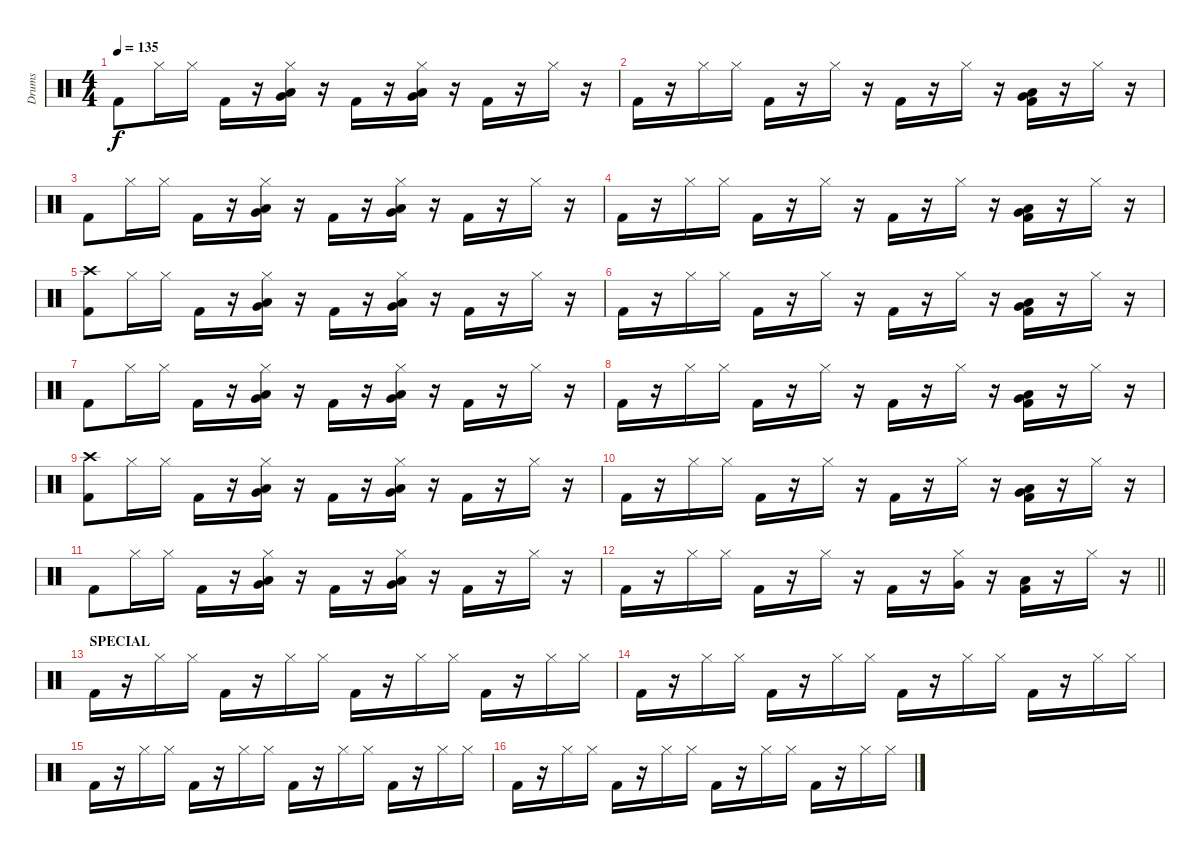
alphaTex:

\track ("Drums" "Drums") {instrument percussion}
\staff {score}
\articulation defaults
\ts (4 4)
\tempo 135
\clef neutral
\ks c "Kick (hit) 2".8{dy f} "Hi-Hat (closed)".16 "Hi-Hat (closed)".16 "Kick (hit) 2".16
r.16 ("Hi-Hat (closed)" "Very Low Tom (hit)" "Low Floor Tom (hit)").16 r.16 "Kick (hit) 2".16 r.16 ("Hi-Hat (closed)" "Low Floor Tom (hit)" "Very Low Tom (hit)").16 r.16 "Kick (hit) 2".16 r.16 "Hi-Hat (closed)".16 r.16 |
"Kick (hit) 2".16 r.16 "Hi-Hat (closed)".16 "Hi-Hat (closed)".16 "Kick (hit) 2".16 r.16 "Hi-Hat (closed)".16 r.16 "Kick (hit) 2".16 r.16 "Hi-Hat (closed)".16 r.16 ("Kick (hit) 2" "Low Floor Tom (hit)" "Very Low Tom (hit)").16 r.16 "Hi-Hat (closed)".16 r.16 |
"Kick (hit) 2".8 "Hi-Hat (closed)".16 "Hi-Hat (closed)".16 "Kick (hit) 2".16 r.16 ("Hi-Hat (closed)" "Very Low Tom (hit)" "Low Floor Tom (hit)").16 r.16 "Kick (hit) 2".16 r.16 ("Hi-Hat (closed)" "Low Floor Tom (hit)" "Very Low Tom (hit)").16 r.16 "Kick (hit) 2".16 r.16 "Hi-Hat (closed)".16 r.16 |
"Kick (hit) 2".16 r.16 "Hi-Hat (closed)".16 "Hi-Hat (closed)".16 "Kick (hit) 2".16 r.16 "Hi-Hat (closed)".16 r.16 "Kick (hit) 2".16 r.16 "Hi-Hat (closed)".16 r.16 ("Kick (hit) 2" "Low Floor Tom (hit)" "Very Low Tom (hit)").16 r.16 "Hi-Hat (closed)".16 r.16 |
("Kick (hit) 2" "Crash high (hit)").8 "Hi-Hat (closed)".16 "Hi-Hat (closed)".16 "Kick (hit) 2".16 r.16 ("Hi-Hat (closed)" "Very Low Tom (hit)" "Low Floor Tom (hit)").16 r.16 "Kick (hit) 2".16 r.16 ("Hi-Hat (closed)" "Low Floor Tom (hit)" "Very Low Tom (hit)").16 r.16 "Kick (hit) 2".16 r.16 "Hi-Hat (closed)".16 r.16 |
"Kick (hit) 2".16 r.16 "Hi-Hat (closed)".16 "Hi-Hat (closed)".16 "Kick (hit) 2".16 r.16 "Hi-Hat (closed)".16 r.16 "Kick (hit) 2".16 r.16 "Hi-Hat (closed)".16 r.16 ("Kick (hit) 2" "Low Floor Tom (hit)" "Very Low Tom (hit)").16 r.16 "Hi-Hat (closed)".16 r.16 |
"Kick (hit) 2".8 "Hi-Hat (closed)".16 "Hi-Hat (closed)".16 "Kick (hit) 2".16 r.16 ("Hi-Hat (closed)" "Very Low Tom (hit)" "Low Floor Tom (hit)").16 r.16 "Kick (hit) 2".16 r.16 ("Hi-Hat (closed)" "Low Floor Tom (hit)" "Very Low Tom (hit)").16 r.16 "Kick (hit) 2".16 r.16 "Hi-Hat (closed)".16 r.16 |
"Kick (hit) 2".16 r.16 "Hi-Hat (closed)".16 "Hi-Hat (closed)".16 "Kick (hit) 2".16 r.16 "Hi-Hat (closed)".16 r.16 "Kick (hit) 2".16 r.16 "Hi-Hat (closed)".16 r.16 ("Kick (hit) 2" "Low Floor Tom (hit)" "Very Low Tom (hit)").16 r.16 "Hi-Hat (closed)".16 r.16 |
("Kick (hit) 2" "Crash high (hit)").8 "Hi-Hat (closed)".16 "Hi-Hat (closed)".16 "Kick (hit) 2".16 r.16 ("Hi-Hat (closed)" "Very Low Tom (hit)" "Low Floor Tom (hit)").16 r.16 "Kick (hit) 2".16 r.16 ("Hi-Hat (closed)" "Low Floor Tom (hit)" "Very Low Tom (hit)").16 r.16 "Kick (hit) 2".16 r.16 "Hi-Hat (closed)".16 r.16 |
"Kick (hit) 2".16 r.16 "Hi-Hat (closed)".16 "Hi-Hat (closed)".16 "Kick (hit) 2".16 r.16 "Hi-Hat (closed)".16 r.16 "Kick (hit) 2".16 r.16 "Hi-Hat (closed)".16 r.16 ("Kick (hit) 2" "Low Floor Tom (hit)" "Very Low Tom (hit)").16 r.16 "Hi-Hat (closed)".16 r.16 |
"Kick (hit) 2".8 "Hi-Hat (closed)".16 "Hi-Hat (closed)".16 "Kick (hit) 2".16 r.16 ("Hi-Hat (closed)" "Very Low Tom (hit)" "Low Floor Tom (hit)").16 r.16 "Kick (hit) 2".16 r.16 ("Hi-Hat (closed)" "Low Floor Tom (hit)" "Very Low Tom (hit)").16 r.16 "Kick (hit) 2".16 r.16 "Hi-Hat (closed)".16 r.16 |
\barLineRight lightlight "Kick (hit) 2".16
r.16 "Hi-Hat (closed)".16 "Hi-Hat (closed)".16 "Kick (hit) 2".16 r.16 "Hi-Hat (closed)".16 r.16 "Kick (hit) 2".16 r.16 ("Hi-Hat (closed)" "Very Low Tom (hit)").16 r.16 ("Kick (hit) 2" "Low Floor Tom (hit)").16 r.16 "Hi-Hat (closed)".16 r.16 |
\section ("" "SPECIAL")
"Kick (hit) 2".16 r.16 "Hi-Hat (closed)".16 "Hi-Hat (closed)".16 "Kick (hit) 2".16 r.16 "Hi-Hat (closed)".16 "Hi-Hat (closed)".16 "Kick (hit) 2".16 r.16 "Hi-Hat (closed)".16 "Hi-Hat (closed)".16 "Kick (hit) 2".16 r.16 "Hi-Hat (closed)".16 "Hi-Hat (closed)".16 |
"Kick (hit) 2".16 r.16 "Hi-Hat (closed)".16 "Hi-Hat (closed)".16 "Kick (hit) 2".16 r.16 "Hi-Hat (closed)".16 "Hi-Hat (closed)".16 "Kick (hit) 2".16 r.16 "Hi-Hat (closed)".16 "Hi-Hat (closed)".16 "Kick (hit) 2".16 r.16 "Hi-Hat (closed)".16 "Hi-Hat (closed)".16 |
"Kick (hit) 2".16 r.16 "Hi-Hat (closed)".16 "Hi-Hat (closed)".16 "Kick (hit) 2".16 r.16 "Hi-Hat (closed)".16 "Hi-Hat (closed)".16 "Kick (hit) 2".16 r.16 "Hi-Hat (closed)".16 "Hi-Hat (closed)".16 "Kick (hit) 2".16 r.16 "Hi-Hat (closed)".16 "Hi-Hat (closed)".16 |
"Kick (hit) 2".16 r.16 "Hi-Hat (closed)".16 "Hi-Hat (closed)".16 "Kick (hit) 2".16 r.16 "Hi-Hat (closed)".16 "Hi-Hat (closed)".16 "Kick (hit) 2".16 r.16 "Hi-Hat (closed)".16 "Hi-Hat (closed)".16 "Kick (hit) 2".16 r.16 "Hi-Hat (closed)".16 "Hi-Hat (closed)".16
